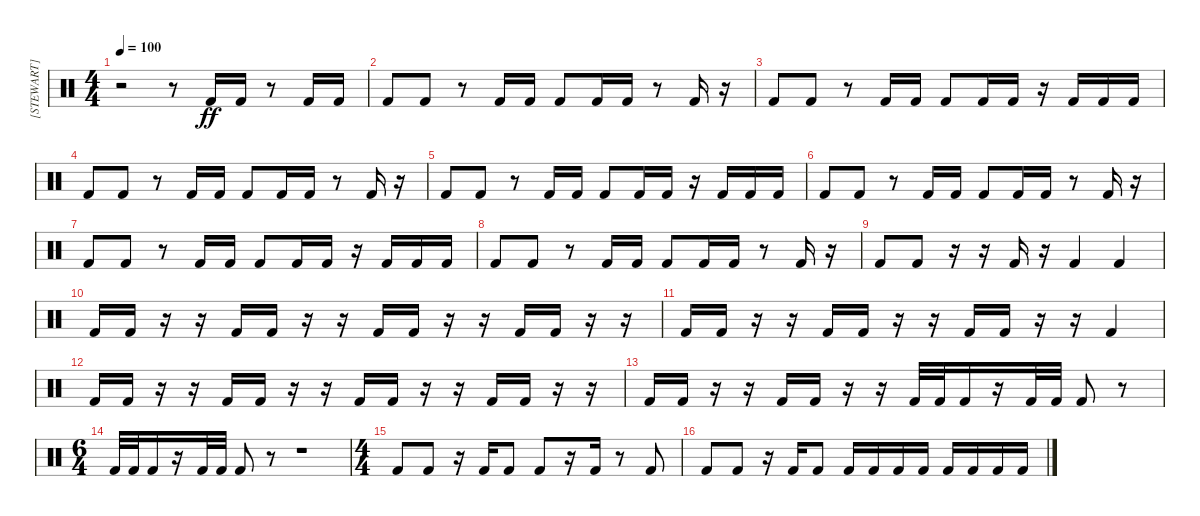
\track ("[STEWART] (бас)" "[STEWART] ") {instrument percussion}
\staff {score}
\articulation defaults
\ts (4 4)
\tempo 100
\clef neutral
\ks c
r.2{dy ff} r.8 "Kick (hit) 2".16 "Kick (hit) 2".16 r.8 "Kick (hit) 2".16 "Kick (hit) 2".16 |
"Kick (hit) 2".8 "Kick (hit) 2".8 r.8 "Kick (hit) 2".16 "Kick (hit) 2".16 "Kick (hit) 2".8 "Kick (hit) 2".16 "Kick (hit) 2".16 r.8 "Kick (hit) 2".16 r.16 |
"Kick (hit) 2".8 "Kick (hit) 2".8 r.8 "Kick (hit) 2".16 "Kick (hit) 2".16 "Kick (hit) 2".8 "Kick (hit) 2".16 "Kick (hit) 2".16 r.16 "Kick (hit) 2".16 "Kick (hit) 2".16 "Kick (hit) 2".16 |
"Kick (hit) 2".8 "Kick (hit) 2".8 r.8 "Kick (hit) 2".16 "Kick (hit) 2".16 "Kick (hit) 2".8 "Kick (hit) 2".16 "Kick (hit) 2".16 r.8 "Kick (hit) 2".16 r.16 |
"Kick (hit) 2".8 "Kick (hit) 2".8 r.8 "Kick (hit) 2".16 "Kick (hit) 2".16 "Kick (hit) 2".8 "Kick (hit) 2".16 "Kick (hit) 2".16 r.16 "Kick (hit) 2".16 "Kick (hit) 2".16 "Kick (hit) 2".16 |
"Kick (hit) 2".8 "Kick (hit) 2".8 r.8 "Kick (hit) 2".16 "Kick (hit) 2".16 "Kick (hit) 2".8 "Kick (hit) 2".16 "Kick (hit) 2".16 r.8 "Kick (hit) 2".16 r.16 |
"Kick (hit) 2".8 "Kick (hit) 2".8 r.8 "Kick (hit) 2".16 "Kick (hit) 2".16 "Kick (hit) 2".8 "Kick (hit) 2".16 "Kick (hit) 2".16 r.16 "Kick (hit) 2".16 "Kick (hit) 2".16 "Kick (hit) 2".16 |
"Kick (hit) 2".8 "Kick (hit) 2".8 r.8 "Kick (hit) 2".16 "Kick (hit) 2".16 "Kick (hit) 2".8 "Kick (hit) 2".16 "Kick (hit) 2".16 r.8 "Kick (hit) 2".16 r.16 |
"Kick (hit) 2".8 "Kick (hit) 2".8 r.16 r.16 "Kick (hit) 2".16 r.16 "Kick (hit) 2".4 "Kick (hit) 2".4 |
"Kick (hit) 2".16 "Kick (hit) 2".16 r.16 r.16 "Kick (hit) 2".16 "Kick (hit) 2".16 r.16 r.16 "Kick (hit) 2".16 "Kick (hit) 2".16 r.16 r.16 "Kick (hit) 2".16 "Kick (hit) 2".16 r.16 r.16 |
"Kick (hit) 2".16 "Kick (hit) 2".16 r.16 r.16 "Kick (hit) 2".16 "Kick (hit) 2".16 r.16 r.16 "Kick (hit) 2".16 "Kick (hit) 2".16 r.16 r.16 "Kick (hit) 2".4 |
"Kick (hit) 2".16 "Kick (hit) 2".16 r.16 r.16 "Kick (hit) 2".16 "Kick (hit) 2".16 r.16 r.16 "Kick (hit) 2".16 "Kick (hit) 2".16 r.16 r.16 "Kick (hit) 2".16 "Kick (hit) 2".16 r.16 r.16 |
"Kick (hit) 2".16 "Kick (hit) 2".16 r.16 r.16 "Kick (hit) 2".16 "Kick (hit) 2".16 r.16 r.16 "Kick (hit) 2".32 "Kick (hit) 2".32 "Kick (hit) 2".16 r.16 "Kick (hit) 2".32 "Kick (hit) 2".32 "Kick (hit) 2".8 r.8 |
\ts (6 4)
"Kick (hit) 2".32 "Kick (hit) 2".32 "Kick (hit) 2".16 r.16 "Kick (hit) 2".32 "Kick (hit) 2".32 "Kick (hit) 2".8 r.8 r.1 |
\ts (4 4)
"Kick (hit) 2".8 "Kick (hit) 2".8 r.16 "Kick (hit) 2".16 "Kick (hit) 2".8 "Kick (hit) 2".8 r.16 "Kick (hit) 2".16 r.8 "Kick (hit) 2".8 |
"Kick (hit) 2".8 "Kick (hit) 2".8 r.16 "Kick (hit) 2".16 "Kick (hit) 2".8 "Kick (hit) 2".16 "Kick (hit) 2".16 "Kick (hit) 2".16 "Kick (hit) 2".16 "Kick (hit) 2".16 "Kick (hit) 2".16 "Kick (hit) 2".16 "Kick (hit) 2".16
